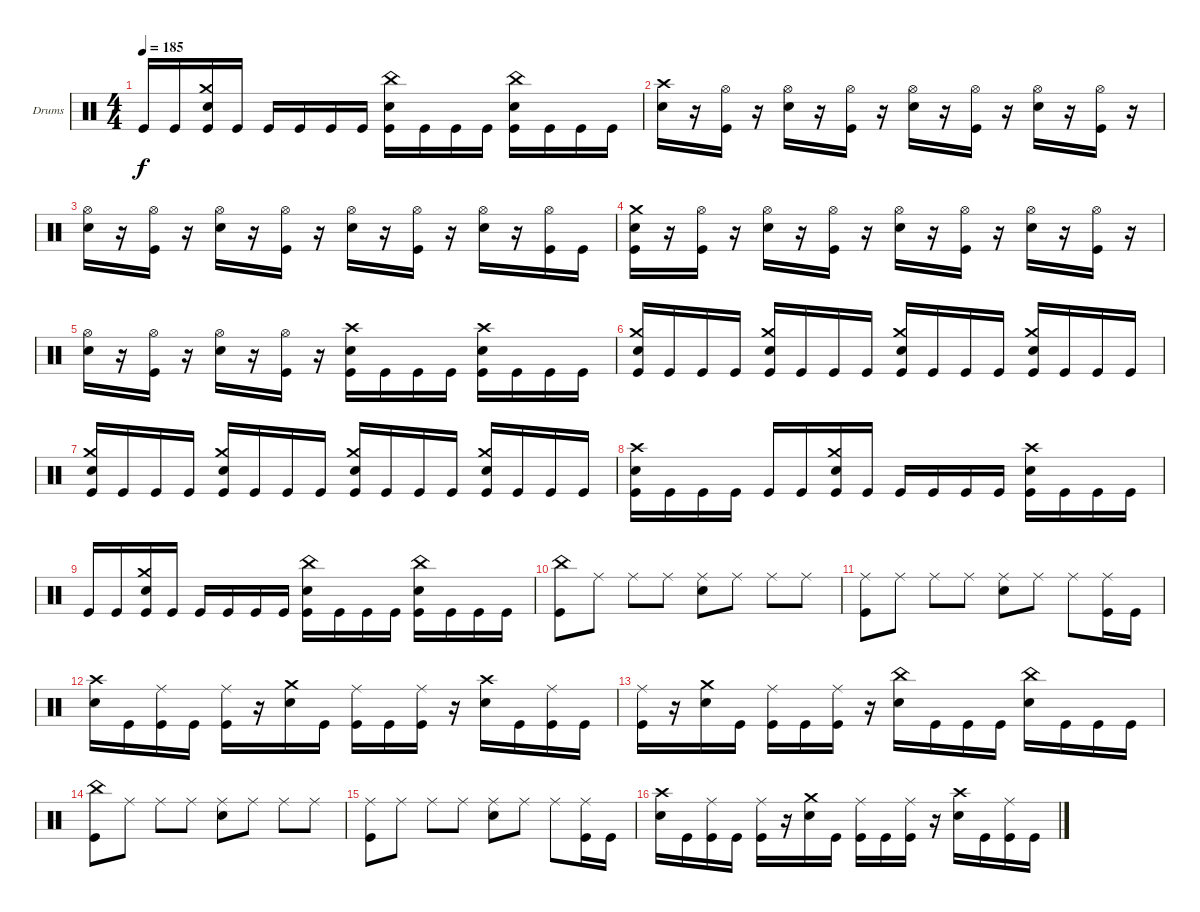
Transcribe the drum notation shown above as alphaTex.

\bracketExtendMode groupsimilarinstruments
\firstSystemTrackNameOrientation horizontal
\otherSystemsTrackNameOrientation horizontal
\track ("Drumkit" "Drums") {instrument percussion}
\staff {score}
\articulation defaults
\ts (4 4)
\tempo 185
\clef neutral
\ks c "Kick (hit)".16{dy f} "Kick (hit)".16
("Crash medium (hit)" "Snare (hit) 2" "Kick (hit)").16 "Kick (hit)".16 "Kick (hit)".16 "Kick (hit)".16 "Kick (hit)".16 "Kick (hit)".16 ("China (hit)" "Snare (hit) 2" "Kick (hit)").16 "Kick (hit)".16 "Kick (hit)".16 "Kick (hit)".16 ("China (hit)" "Snare (hit) 2" "Kick (hit)").16 "Kick (hit)".16 "Kick (hit)".16 "Kick (hit)".16 |
("Crash high (hit)" "Snare (hit) 2").16 r.16 ("Hi-Hat (open)" "Kick (hit)").16 r.16 ("Hi-Hat (open)" "Snare (hit) 2").16 r.16 ("Hi-Hat (open)" "Kick (hit)").16 r.16 ("Hi-Hat (open)" "Snare (hit) 2").16 r.16 ("Hi-Hat (open)" "Kick (hit)").16 r.16 ("Hi-Hat (open)" "Snare (hit) 2").16 r.16 ("Hi-Hat (open)" "Kick (hit)").16 r.16 |
("Hi-Hat (open)" "Snare (hit) 2").16 r.16 ("Hi-Hat (open)" "Kick (hit)").16 r.16 ("Hi-Hat (open)" "Snare (hit) 2").16 r.16 ("Hi-Hat (open)" "Kick (hit)").16 r.16 ("Hi-Hat (open)" "Snare (hit) 2").16 r.16 ("Hi-Hat (open)" "Kick (hit)").16 r.16 ("Hi-Hat (open)" "Snare (hit) 2").16 r.16 ("Hi-Hat (open)" "Kick (hit)").16 "Kick (hit)".16 |
("Crash medium (hit)" "Snare (hit) 2" "Kick (hit)").16 r.16 ("Hi-Hat (open)" "Kick (hit)").16 r.16 ("Hi-Hat (open)" "Snare (hit) 2").16 r.16 ("Hi-Hat (open)" "Kick (hit)").16 r.16 ("Hi-Hat (open)" "Snare (hit) 2").16 r.16 ("Hi-Hat (open)" "Kick (hit)").16 r.16 ("Hi-Hat (open)" "Snare (hit) 2").16 r.16 ("Hi-Hat (open)" "Kick (hit)").16 r.16 |
("Hi-Hat (open)" "Snare (hit) 2").16 r.16 ("Hi-Hat (open)" "Kick (hit)").16 r.16 ("Hi-Hat (open)" "Snare (hit) 2").16 r.16 ("Hi-Hat (open)" "Kick (hit)").16 r.16 ("Crash high (hit)" "Snare (hit) 2" "Kick (hit)").16 "Kick (hit)".16 "Kick (hit)".16 "Kick (hit)".16 ("Crash high (hit)" "Snare (hit) 2" "Kick (hit)").16 "Kick (hit)".16 "Kick (hit)".16 "Kick (hit)".16 |
("Crash medium (hit)" "Snare (hit) 2" "Kick (hit)").16 "Kick (hit)".16 "Kick (hit)".16 "Kick (hit)".16 ("Crash medium (hit)" "Snare (hit) 2" "Kick (hit)").16 "Kick (hit)".16 "Kick (hit)".16 "Kick (hit)".16 ("Crash medium (hit)" "Snare (hit) 2" "Kick (hit)").16 "Kick (hit)".16 "Kick (hit)".16 "Kick (hit)".16 ("Crash medium (hit)" "Snare (hit) 2" "Kick (hit)").16 "Kick (hit)".16 "Kick (hit)".16 "Kick (hit)".16 |
("Crash medium (hit)" "Snare (hit) 2" "Kick (hit)").16 "Kick (hit)".16 "Kick (hit)".16 "Kick (hit)".16 ("Crash medium (hit)" "Snare (hit) 2" "Kick (hit)").16 "Kick (hit)".16 "Kick (hit)".16 "Kick (hit)".16 ("Crash medium (hit)" "Snare (hit) 2" "Kick (hit)").16 "Kick (hit)".16 "Kick (hit)".16 "Kick (hit)".16 ("Crash medium (hit)" "Snare (hit) 2" "Kick (hit)").16 "Kick (hit)".16 "Kick (hit)".16 "Kick (hit)".16 |
("Crash high (hit)" "Snare (hit) 2" "Kick (hit)").16 "Kick (hit)".16 "Kick (hit)".16 "Kick (hit)".16 "Kick (hit)".16 "Kick (hit)".16 ("Crash medium (hit)" "Snare (hit) 2" "Kick (hit)").16 "Kick (hit)".16 "Kick (hit)".16 "Kick (hit)".16 "Kick (hit)".16 "Kick (hit)".16 ("Crash high (hit)" "Snare (hit) 2" "Kick (hit)").16 "Kick (hit)".16 "Kick (hit)".16 "Kick (hit)".16 |
"Kick (hit)".16 "Kick (hit)".16 ("Crash medium (hit)" "Snare (hit) 2" "Kick (hit)").16 "Kick (hit)".16 "Kick (hit)".16 "Kick (hit)".16 "Kick (hit)".16 "Kick (hit)".16 ("China (hit)" "Snare (hit) 2" "Kick (hit)").16 "Kick (hit)".16 "Kick (hit)".16 "Kick (hit)".16 ("China (hit)" "Snare (hit) 2" "Kick (hit)").16 "Kick (hit)".16 "Kick (hit)".16 "Kick (hit)".16 |
("China (hit)" "Kick (hit)").8 "Ride (middle)".8 "Ride (middle)".8 "Ride (middle)".8 ("Ride (middle)" "Snare (hit) 2").8 "Ride (middle)".8 "Ride (middle)".8 "Ride (middle)".8 |
("Ride (middle)" "Kick (hit)").8 "Ride (middle)".8 "Ride (middle)".8 "Ride (middle)".8 ("Ride (middle)" "Snare (hit) 2").8 "Ride (middle)".8 "Ride (middle)".8 ("Ride (middle)" "Kick (hit)").16 "Kick (hit)".16 |
("Crash high (hit)" "Snare (hit) 2").16 "Kick (hit)".16 ("Ride (middle)" "Kick (hit)").16 "Kick (hit)".16 ("Ride (middle)" "Kick (hit)").16 r.16 ("Crash medium (hit)" "Snare (hit) 2").16 "Kick (hit)".16 ("Ride (middle)" "Kick (hit)").16 "Kick (hit)".16 ("Ride (middle)" "Kick (hit)").16 r.16 ("Crash high (hit)" "Snare (hit) 2").16 "Kick (hit)".16 ("Ride (middle)" "Kick (hit)").16 "Kick (hit)".16 |
("Ride (middle)" "Kick (hit)").16 r.16 ("Crash medium (hit)" "Snare (hit) 2").16 "Kick (hit)".16 ("Ride (middle)" "Kick (hit)").16 "Kick (hit)".16 ("Ride (middle)" "Kick (hit)").16 r.16 ("China (hit)" "Snare (hit) 2").16 "Kick (hit)".16 "Kick (hit)".16 "Kick (hit)".16 ("China (hit)" "Snare (hit) 2").16 "Kick (hit)".16 "Kick (hit)".16 "Kick (hit)".16 |
("China (hit)" "Kick (hit)").8 "Ride (middle)".8 "Ride (middle)".8 "Ride (middle)".8 ("Ride (middle)" "Snare (hit) 2").8 "Ride (middle)".8 "Ride (middle)".8 "Ride (middle)".8 |
("Ride (middle)" "Kick (hit)").8 "Ride (middle)".8 "Ride (middle)".8 "Ride (middle)".8 ("Ride (middle)" "Snare (hit) 2").8 "Ride (middle)".8 "Ride (middle)".8 ("Ride (middle)" "Kick (hit)").16 "Kick (hit)".16 |
("Crash high (hit)" "Snare (hit) 2").16 "Kick (hit)".16 ("Ride (middle)" "Kick (hit)").16 "Kick (hit)".16 ("Ride (middle)" "Kick (hit)").16 r.16 ("Crash medium (hit)" "Snare (hit) 2").16 "Kick (hit)".16 ("Ride (middle)" "Kick (hit)").16 "Kick (hit)".16 ("Ride (middle)" "Kick (hit)").16 r.16 ("Crash high (hit)" "Snare (hit) 2").16 "Kick (hit)".16 ("Ride (middle)" "Kick (hit)").16 "Kick (hit)".16
